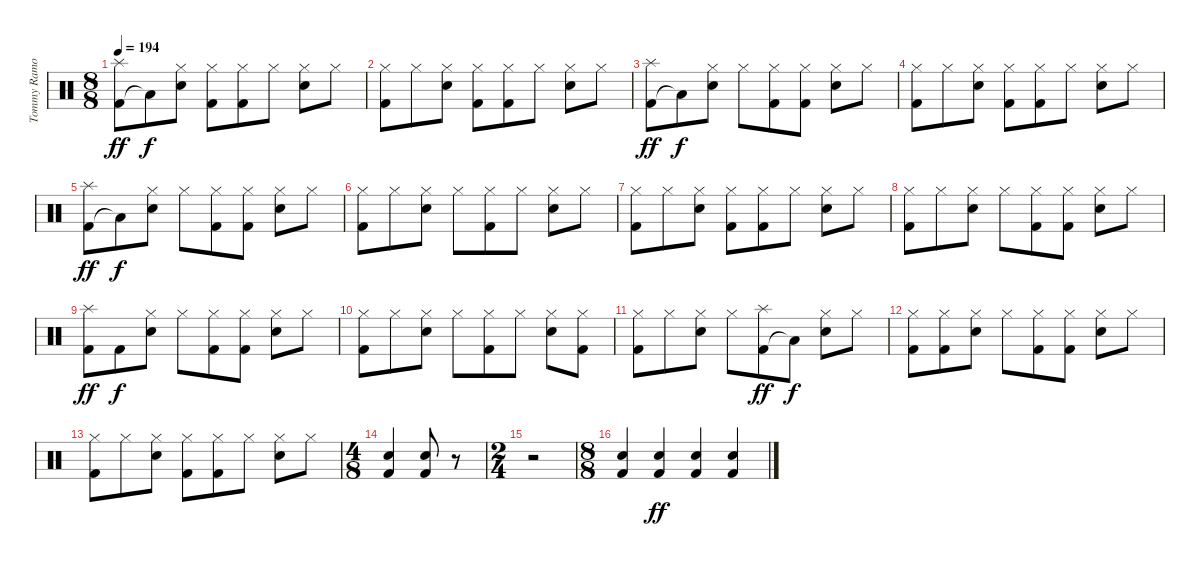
\track ("Tommy Ramone - Drums" "Tommy Ramo") {instrument percussion}
\staff {score}
\articulation defaults
\ts (8 8)
\tempo 194
\clef neutral
\ks c
("Kick (hit) 2" "Splash (hit)").8{dy ff} "Low Floor Tom (hit)"{t}.8{dy f} ("Electric Snare (hit)" "Hi-Hat (closed)").8 ("Kick (hit) 2" "Hi-Hat (closed)").8 ("Kick (hit) 2" "Hi-Hat (closed)").8 "Hi-Hat (closed)".8 ("Electric Snare (hit)" "Hi-Hat (closed)").8 "Hi-Hat (closed)".8 |
("Kick (hit) 2" "Hi-Hat (closed)").8 "Hi-Hat (closed)".8 ("Electric Snare (hit)" "Hi-Hat (closed)").8 ("Kick (hit) 2" "Hi-Hat (closed)").8 ("Kick (hit) 2" "Hi-Hat (closed)").8 "Hi-Hat (closed)".8 ("Electric Snare (hit)" "Hi-Hat (closed)").8 "Hi-Hat (closed)".8 |
("Kick (hit) 2" "Splash (hit)").8{dy ff} "Low Floor Tom (hit)"{t}.8{dy f} ("Electric Snare (hit)" "Hi-Hat (closed)").8 "Hi-Hat (closed)".8 ("Kick (hit) 2" "Hi-Hat (closed)").8 ("Kick (hit) 2" "Hi-Hat (closed)").8 ("Electric Snare (hit)" "Hi-Hat (closed)").8 "Hi-Hat (closed)".8 |
("Kick (hit) 2" "Hi-Hat (closed)").8 "Hi-Hat (closed)".8 ("Electric Snare (hit)" "Hi-Hat (closed)").8 ("Kick (hit) 2" "Hi-Hat (closed)").8 ("Kick (hit) 2" "Hi-Hat (closed)").8 "Hi-Hat (closed)".8 ("Electric Snare (hit)" "Hi-Hat (closed)").8 "Hi-Hat (closed)".8 |
("Kick (hit) 2" "Splash (hit)").8{dy ff} "Low Floor Tom (hit)"{t}.8{dy f} ("Electric Snare (hit)" "Hi-Hat (closed)").8 "Hi-Hat (closed)".8 ("Kick (hit) 2" "Hi-Hat (closed)").8 ("Kick (hit) 2" "Hi-Hat (closed)").8 ("Electric Snare (hit)" "Hi-Hat (closed)").8 "Hi-Hat (closed)".8 |
("Kick (hit) 2" "Hi-Hat (closed)").8 "Hi-Hat (closed)".8 ("Electric Snare (hit)" "Hi-Hat (closed)").8 "Hi-Hat (closed)".8 ("Kick (hit) 2" "Hi-Hat (closed)").8 "Hi-Hat (closed)".8 ("Electric Snare (hit)" "Hi-Hat (closed)").8 "Hi-Hat (closed)".8 |
("Kick (hit) 2" "Hi-Hat (closed)").8 "Hi-Hat (closed)".8 ("Electric Snare (hit)" "Hi-Hat (closed)").8 ("Kick (hit) 2" "Hi-Hat (closed)").8 ("Kick (hit) 2" "Hi-Hat (closed)").8 "Hi-Hat (closed)".8 ("Electric Snare (hit)" "Hi-Hat (closed)").8 "Hi-Hat (closed)".8 |
("Kick (hit) 2" "Hi-Hat (closed)").8 "Hi-Hat (closed)".8 ("Electric Snare (hit)" "Hi-Hat (closed)").8 "Hi-Hat (closed)".8 ("Kick (hit) 2" "Hi-Hat (closed)").8 ("Kick (hit) 2" "Hi-Hat (closed)").8 ("Electric Snare (hit)" "Hi-Hat (closed)").8 "Hi-Hat (closed)".8 |
("Kick (hit) 2" "Splash (hit)").8{dy ff} "Kick (hit) 2".8{dy f} ("Electric Snare (hit)" "Hi-Hat (closed)").8 "Hi-Hat (closed)".8 ("Kick (hit) 2" "Hi-Hat (closed)").8 ("Kick (hit) 2" "Hi-Hat (closed)").8 ("Electric Snare (hit)" "Hi-Hat (closed)").8 "Hi-Hat (closed)".8 |
("Kick (hit) 2" "Hi-Hat (closed)").8 "Hi-Hat (closed)".8 ("Electric Snare (hit)" "Hi-Hat (closed)").8 "Hi-Hat (closed)".8 ("Kick (hit) 2" "Hi-Hat (closed)").8 "Hi-Hat (closed)".8 ("Electric Snare (hit)" "Hi-Hat (closed)").8 ("Kick (hit) 2" "Hi-Hat (closed)").8 |
("Kick (hit) 2" "Hi-Hat (closed)").8 "Hi-Hat (closed)".8 ("Electric Snare (hit)" "Hi-Hat (closed)").8 "Hi-Hat (closed)".8 ("Kick (hit) 2" "Splash (hit)").8{dy ff} "Low Floor Tom (hit)"{t}.8{dy f} ("Electric Snare (hit)" "Hi-Hat (closed)").8 "Hi-Hat (closed)".8 |
("Kick (hit) 2" "Hi-Hat (closed)").8 ("Kick (hit) 2" "Hi-Hat (closed)").8 ("Electric Snare (hit)" "Hi-Hat (closed)").8 "Hi-Hat (closed)".8 ("Kick (hit) 2" "Hi-Hat (closed)").8 ("Kick (hit) 2" "Hi-Hat (closed)").8 ("Electric Snare (hit)" "Hi-Hat (closed)").8 "Hi-Hat (closed)".8 |
("Kick (hit) 2" "Hi-Hat (closed)").8 "Hi-Hat (closed)".8 ("Electric Snare (hit)" "Hi-Hat (closed)").8 ("Kick (hit) 2" "Hi-Hat (closed)").8 ("Kick (hit) 2" "Hi-Hat (closed)").8 "Hi-Hat (closed)".8 ("Electric Snare (hit)" "Hi-Hat (closed)").8 "Hi-Hat (closed)".8 |
\ts (4 8)
("Electric Snare (hit)" "Kick (hit) 2").4 ("Electric Snare (hit)" "Kick (hit) 2").8 r.8 |
\ts (2 4)
r.2 |
\ts (8 8)
("Electric Snare (hit)" "Kick (hit) 2").4 ("Electric Snare (hit)" "Kick (hit) 2").4{dy ff} ("Electric Snare (hit)" "Kick (hit) 2").4 ("Electric Snare (hit)" "Kick (hit) 2").4
